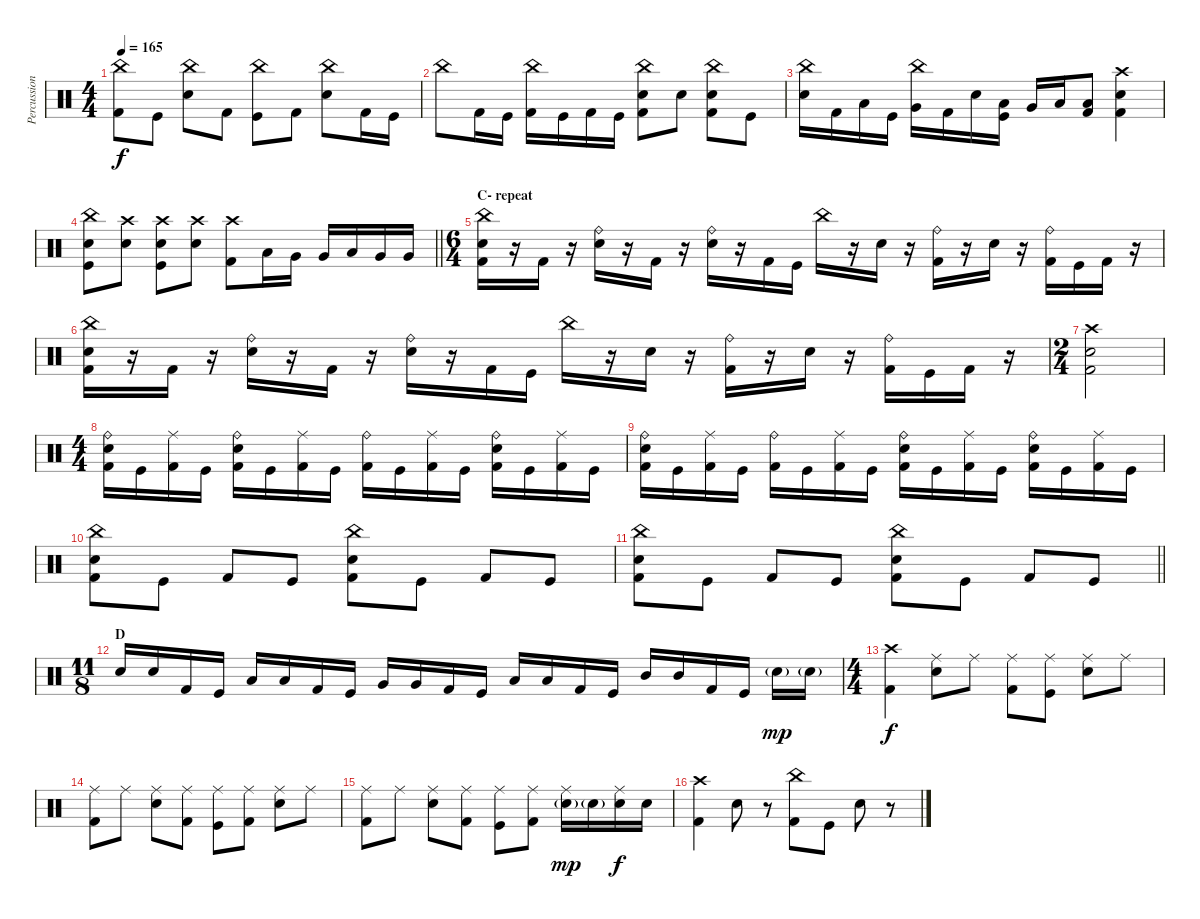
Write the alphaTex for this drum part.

\track ("Percussion" "Percussion") {instrument percussion}
\staff {score}
\articulation defaults
\ts (4 4)
\tempo 165
\clef neutral
\ks c
("China (hit)" "Kick (hit) 2").8{dy f} "Kick (hit)".8 ("China (hit)" "Electric Snare (hit)").8 "Kick (hit) 2".8 ("China (hit)" "Kick (hit)").8 "Kick (hit) 2".8 ("China (hit)" "Electric Snare (hit)").8 "Kick (hit) 2".16 "Kick (hit)".16 |
"China (hit)".8 "Kick (hit) 2".16 "Kick (hit)".16 ("China (hit)" "Kick (hit) 2").16 "Kick (hit)".16 "Kick (hit) 2".16 "Kick (hit)".16 ("China (hit)" "Electric Snare (hit)" "Kick (hit) 2").8 "Electric Snare (hit)".8 ("China (hit)" "Electric Snare (hit)" "Kick (hit) 2").8 "Kick (hit)".8 |
("China (hit)" "Electric Snare (hit)").16 "Kick (hit) 2".16 "Low Tom (hit)".16 "Kick (hit)".16 ("China (hit)" "Very Low Tom (hit)").16 "Kick (hit) 2".16 "Electric Snare (hit)".16 ("Low Tom (hit)" "Kick (hit)").16 "Very Low Tom (hit)".16 "Low Floor Tom (hit)".16 ("Low Tom (hit)" "Kick (hit) 2").8 ("Crash high (hit)" "Electric Snare (hit)" "Kick (hit) 2").4 |
\barLineRight lightlight
("China (hit)" "Electric Snare (hit)" "Kick (hit)").8 ("Crash high (hit)" "Electric Snare (hit)").8 ("Crash high (hit)" "Electric Snare (hit)" "Kick (hit)").8 ("Crash high (hit)" "Electric Snare (hit)").8 ("Crash high (hit)" "Kick (hit) 2").8 "Low Tom (hit)".16 "Very Low Tom (hit)".16 "Very Low Tom (hit)".16 "Low Tom (hit)".16 "Very Low Tom (hit)".16 "Very Low Tom (hit)".16 |
\ts (6 4)
\section ("" "C- repeat")
("China (hit)" "Electric Snare (hit)" "Kick (hit) 2").16 r.16 "Kick (hit) 2".16 r.16 ("Ride (bell)" "Electric Snare (hit)").16 r.16 "Kick (hit) 2".16 r.16 ("Ride (bell)" "Electric Snare (hit)").16 r.16 "Kick (hit) 2".16 "Kick (hit)".16 "China (hit)".16 r.16 "Electric Snare (hit)".16 r.16 ("Ride (bell)" "Kick (hit) 2").16 r.16 "Electric Snare (hit)".16 r.16 ("Ride (bell)" "Kick (hit) 2").16 "Kick (hit)".16 "Kick (hit) 2".16 r.16 |
("China (hit)" "Electric Snare (hit)" "Kick (hit) 2").16 r.16 "Kick (hit) 2".16 r.16 ("Ride (bell)" "Electric Snare (hit)").16 r.16 "Kick (hit) 2".16 r.16 ("Ride (bell)" "Electric Snare (hit)").16 r.16 "Kick (hit) 2".16 "Kick (hit)".16 "China (hit)".16 r.16 "Electric Snare (hit)".16 r.16 ("Ride (bell)" "Kick (hit) 2").16 r.16 "Electric Snare (hit)".16 r.16 ("Ride (bell)" "Kick (hit) 2").16 "Kick (hit)".16 "Kick (hit) 2".16 r.16 |
\ts (2 4)
("Crash high (hit)" "Electric Snare (hit)" "Kick (hit) 2").2 |
\ts (4 4)
("Ride (bell)" "Electric Snare (hit)" "Kick (hit) 2").16 "Kick (hit)".16 ("Ride (middle)" "Kick (hit) 2").16 "Kick (hit)".16 ("Ride (bell)" "Electric Snare (hit)" "Kick (hit) 2").16 "Kick (hit)".16 ("Ride (middle)" "Kick (hit) 2").16 "Kick (hit)".16 ("Ride (bell)" "Kick (hit) 2").16 "Kick (hit)".16 ("Ride (middle)" "Kick (hit) 2").16 "Kick (hit)".16 ("Ride (bell)" "Electric Snare (hit)" "Kick (hit) 2").16 "Kick (hit)".16 ("Ride (middle)" "Kick (hit) 2").16 "Kick (hit)".16 |
("Ride (bell)" "Electric Snare (hit)" "Kick (hit) 2").16 "Kick (hit)".16 ("Ride (middle)" "Kick (hit) 2").16 "Kick (hit)".16 ("Ride (bell)" "Kick (hit) 2").16 "Kick (hit)".16 ("Ride (middle)" "Kick (hit) 2").16 "Kick (hit)".16 ("Ride (bell)" "Electric Snare (hit)" "Kick (hit) 2").16 "Kick (hit)".16 ("Ride (middle)" "Kick (hit) 2").16 "Kick (hit)".16 ("Ride (bell)" "Electric Snare (hit)" "Kick (hit) 2").16 "Kick (hit)".16 ("Ride (middle)" "Kick (hit) 2").16 "Kick (hit)".16 |
("China (hit)" "Electric Snare (hit)" "Kick (hit) 2").8 "Kick (hit)".8 "Kick (hit) 2".8 "Kick (hit)".8 ("China (hit)" "Electric Snare (hit)" "Kick (hit) 2").8 "Kick (hit)".8 "Kick (hit) 2".8 "Kick (hit)".8 |
\barLineRight lightlight
("China (hit)" "Electric Snare (hit)" "Kick (hit) 2").8 "Kick (hit)".8 "Kick (hit) 2".8 "Kick (hit)".8 ("China (hit)" "Electric Snare (hit)" "Kick (hit) 2").8 "Kick (hit)".8 "Kick (hit) 2".8 "Kick (hit)".8 |
\ts (11 8)
\section ("" "D")
"Electric Snare (hit)".16 "Electric Snare (hit)".16 "Kick (hit) 2".16 "Kick (hit)".16 "Low Tom (hit)".16 "Low Tom (hit)".16 "Kick (hit) 2".16 "Kick (hit)".16 "Very Low Tom (hit)".16 "Very Low Tom (hit)".16 "Kick (hit) 2".16 "Kick (hit)".16 "Low Floor Tom (hit)".16 "Low Floor Tom (hit)".16 "Kick (hit) 2".16 "Kick (hit)".16 "Mid Tom (hit)".16 "Mid Tom (hit)".16 "Kick (hit) 2".16 "Kick (hit)".16 "Electric Snare (hit)"{g}.16{dy mp} "Electric Snare (hit)"{g}.16 |
\ts (4 4)
("Crash high (hit)" "Kick (hit) 2").4{dy f} ("Ride (middle)" "Electric Snare (hit)").8 "Ride (middle)".8 ("Ride (middle)" "Kick (hit) 2").8 ("Ride (middle)" "Kick (hit)").8 ("Ride (middle)" "Electric Snare (hit)").8 "Ride (middle)".8 |
("Ride (middle)" "Kick (hit) 2").8 "Ride (middle)".8 ("Ride (middle)" "Electric Snare (hit)").8 ("Ride (middle)" "Kick (hit) 2").8 ("Ride (middle)" "Kick (hit)").8 ("Ride (middle)" "Kick (hit) 2").8 ("Ride (middle)" "Electric Snare (hit)").8 "Ride (middle)".8 |
("Ride (middle)" "Kick (hit) 2").8 "Ride (middle)".8 ("Ride (middle)" "Electric Snare (hit)").8 ("Ride (middle)" "Kick (hit) 2").8 ("Ride (middle)" "Kick (hit)").8 ("Ride (middle)" "Kick (hit) 2").8 ("Ride (middle)" "Electric Snare (hit)"{g}).16{dy mp} "Electric Snare (hit)"{g}.16 ("Ride (middle)" "Electric Snare (hit)").16{dy f} "Electric Snare (hit)".16 |
("Crash high (hit)" "Kick (hit) 2").4 "Electric Snare (hit)".8 r.8 ("China (hit)" "Kick (hit) 2").8 "Kick (hit)".8 "Electric Snare (hit)".8 r.8
